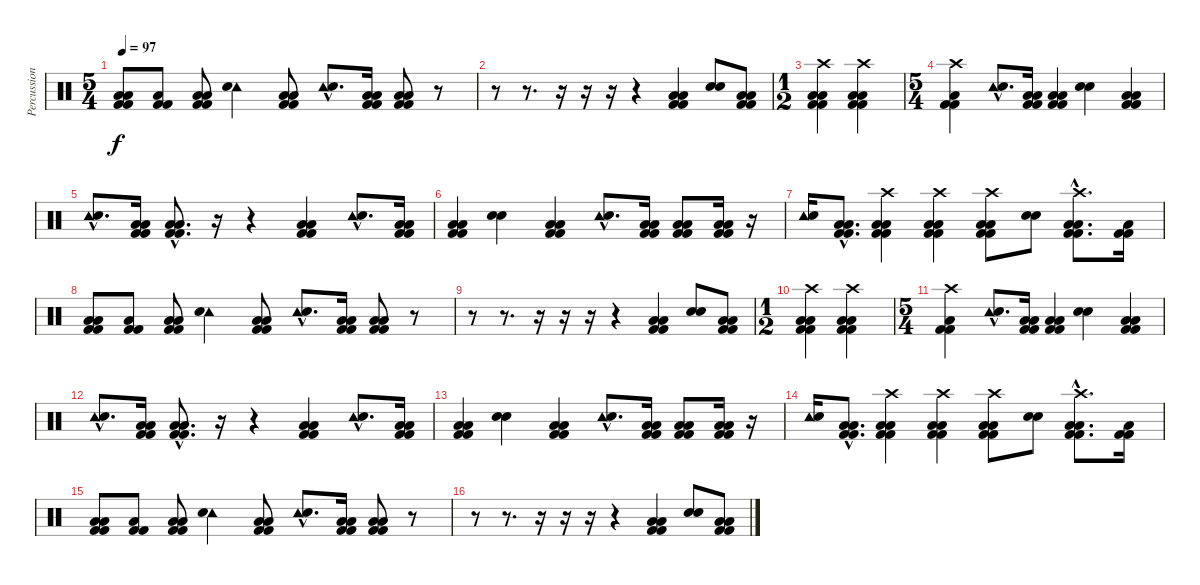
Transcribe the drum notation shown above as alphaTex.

\track ("Percussions" "Percussion") {instrument percussion}
\staff {score}
\articulation defaults
\ts (5 4)
\tempo 97
\clef neutral
\ks c
("Kick (hit) 2" "Kick (hit) 2" "Low Floor Tom (hit)" "Low Floor Tom (hit)").8{dy f} ("Kick (hit) 2" "Kick (hit) 2" "Low Floor Tom (hit)").8 ("Kick (hit) 2" "Kick (hit) 2" "Low Floor Tom (hit)" "Low Floor Tom (hit)").8 ("Tambourine (hit)" "Electric Snare (hit)").4 ("Kick (hit) 2" "Kick (hit) 2" "Low Floor Tom (hit)" "Low Floor Tom (hit)").8 ("Tambourine (hit)"{hac} "Electric Snare (hit)"{hac}).8{d} ("Kick (hit) 2" "Kick (hit) 2" "Low Floor Tom (hit)" "Low Floor Tom (hit)").16 ("Kick (hit) 2" "Kick (hit) 2" "Low Floor Tom (hit)" "Low Floor Tom (hit)").8 r.8 |
r.8 r.8{d} r.16 r.16 r.16 r.4 ("Kick (hit) 2" "Kick (hit) 2" "Low Floor Tom (hit)" "Low Floor Tom (hit)").4 ("Electric Snare (hit)" "Electric Snare (hit)").8 ("Kick (hit) 2" "Kick (hit) 2" "Low Floor Tom (hit)" "Low Floor Tom (hit)").8 |
\ts (1 2)
("Kick (hit) 2" "Kick (hit) 2" "Low Floor Tom (hit)" "Low Floor Tom (hit)" "Crash high (hit)").4 ("Kick (hit) 2" "Kick (hit) 2" "Low Floor Tom (hit)" "Low Floor Tom (hit)" "Crash high (hit)").4 |
\ts (5 4)
("Kick (hit) 2" "Kick (hit) 2" "Low Floor Tom (hit)" "Crash high (hit)").4 ("Tambourine (hit)"{hac} "Electric Snare (hit)"{hac}).8{d} ("Kick (hit) 2" "Kick (hit) 2" "Low Floor Tom (hit)" "Low Floor Tom (hit)").16 ("Kick (hit) 2" "Kick (hit) 2" "Low Floor Tom (hit)" "Low Floor Tom (hit)").4 ("Electric Snare (hit)" "Electric Snare (hit)").4 ("Kick (hit) 2" "Kick (hit) 2" "Low Floor Tom (hit)" "Low Floor Tom (hit)").4 |
("Tambourine (hit)"{hac} "Electric Snare (hit)"{hac}).8{d} ("Kick (hit) 2" "Kick (hit) 2" "Low Floor Tom (hit)" "Low Floor Tom (hit)").16 ("Kick (hit) 2"{hac} "Kick (hit) 2"{hac} "Low Floor Tom (hit)"{hac} "Low Floor Tom (hit)"{hac}).8{d} r.16 r.4 ("Kick (hit) 2" "Kick (hit) 2" "Low Floor Tom (hit)" "Low Floor Tom (hit)").4 ("Tambourine (hit)"{hac} "Electric Snare (hit)"{hac}).8{d} ("Kick (hit) 2" "Kick (hit) 2" "Low Floor Tom (hit)" "Low Floor Tom (hit)").16 |
("Kick (hit) 2" "Kick (hit) 2" "Low Floor Tom (hit)" "Low Floor Tom (hit)").4 ("Electric Snare (hit)" "Electric Snare (hit)").4 ("Kick (hit) 2" "Kick (hit) 2" "Low Floor Tom (hit)" "Low Floor Tom (hit)").4 ("Tambourine (hit)"{hac} "Electric Snare (hit)"{hac}).8{d} ("Kick (hit) 2" "Kick (hit) 2" "Low Floor Tom (hit)" "Low Floor Tom (hit)").16 ("Kick (hit) 2" "Kick (hit) 2" "Low Floor Tom (hit)" "Low Floor Tom (hit)").8 ("Kick (hit) 2" "Kick (hit) 2" "Low Floor Tom (hit)" "Low Floor Tom (hit)").16 r.16 |
("Tambourine (hit)" "Electric Snare (hit)").16 ("Kick (hit) 2"{hac} "Kick (hit) 2"{hac} "Low Floor Tom (hit)"{hac} "Low Floor Tom (hit)"{hac}).8{d} ("Kick (hit) 2" "Kick (hit) 2" "Low Floor Tom (hit)" "Low Floor Tom (hit)" "Crash high (hit)").4 ("Kick (hit) 2" "Kick (hit) 2" "Low Floor Tom (hit)" "Low Floor Tom (hit)" "Crash high (hit)").4 ("Kick (hit) 2" "Kick (hit) 2" "Low Floor Tom (hit)" "Low Floor Tom (hit)" "Crash high (hit)").8 ("Electric Snare (hit)" "Electric Snare (hit)").8 ("Kick (hit) 2"{hac} "Kick (hit) 2"{hac} "Low Floor Tom (hit)"{hac} "Low Floor Tom (hit)"{hac} "Crash high (hit)"{hac}).8{d} ("Kick (hit) 2" "Kick (hit) 2" "Low Floor Tom (hit)").16 |
("Kick (hit) 2" "Kick (hit) 2" "Low Floor Tom (hit)" "Low Floor Tom (hit)").8 ("Kick (hit) 2" "Kick (hit) 2" "Low Floor Tom (hit)").8 ("Kick (hit) 2" "Kick (hit) 2" "Low Floor Tom (hit)" "Low Floor Tom (hit)").8 ("Tambourine (hit)" "Electric Snare (hit)").4 ("Kick (hit) 2" "Kick (hit) 2" "Low Floor Tom (hit)" "Low Floor Tom (hit)").8 ("Tambourine (hit)"{hac} "Electric Snare (hit)"{hac}).8{d} ("Kick (hit) 2" "Kick (hit) 2" "Low Floor Tom (hit)" "Low Floor Tom (hit)").16 ("Kick (hit) 2" "Kick (hit) 2" "Low Floor Tom (hit)" "Low Floor Tom (hit)").8 r.8 |
r.8 r.8{d} r.16 r.16 r.16 r.4 ("Kick (hit) 2" "Kick (hit) 2" "Low Floor Tom (hit)" "Low Floor Tom (hit)").4 ("Electric Snare (hit)" "Electric Snare (hit)").8 ("Kick (hit) 2" "Kick (hit) 2" "Low Floor Tom (hit)" "Low Floor Tom (hit)").8 |
\ts (1 2)
("Kick (hit) 2" "Kick (hit) 2" "Low Floor Tom (hit)" "Low Floor Tom (hit)" "Crash high (hit)").4 ("Kick (hit) 2" "Kick (hit) 2" "Low Floor Tom (hit)" "Low Floor Tom (hit)" "Crash high (hit)").4 |
\ts (5 4)
("Kick (hit) 2" "Kick (hit) 2" "Low Floor Tom (hit)" "Crash high (hit)").4 ("Tambourine (hit)"{hac} "Electric Snare (hit)"{hac}).8{d} ("Kick (hit) 2" "Kick (hit) 2" "Low Floor Tom (hit)" "Low Floor Tom (hit)").16 ("Kick (hit) 2" "Kick (hit) 2" "Low Floor Tom (hit)" "Low Floor Tom (hit)").4 ("Electric Snare (hit)" "Electric Snare (hit)").4 ("Kick (hit) 2" "Kick (hit) 2" "Low Floor Tom (hit)" "Low Floor Tom (hit)").4 |
("Tambourine (hit)"{hac} "Electric Snare (hit)"{hac}).8{d} ("Kick (hit) 2" "Kick (hit) 2" "Low Floor Tom (hit)" "Low Floor Tom (hit)").16 ("Kick (hit) 2"{hac} "Kick (hit) 2"{hac} "Low Floor Tom (hit)"{hac} "Low Floor Tom (hit)"{hac}).8{d} r.16 r.4 ("Kick (hit) 2" "Kick (hit) 2" "Low Floor Tom (hit)" "Low Floor Tom (hit)").4 ("Tambourine (hit)"{hac} "Electric Snare (hit)"{hac}).8{d} ("Kick (hit) 2" "Kick (hit) 2" "Low Floor Tom (hit)" "Low Floor Tom (hit)").16 |
("Kick (hit) 2" "Kick (hit) 2" "Low Floor Tom (hit)" "Low Floor Tom (hit)").4 ("Electric Snare (hit)" "Electric Snare (hit)").4 ("Kick (hit) 2" "Kick (hit) 2" "Low Floor Tom (hit)" "Low Floor Tom (hit)").4 ("Tambourine (hit)"{hac} "Electric Snare (hit)"{hac}).8{d} ("Kick (hit) 2" "Kick (hit) 2" "Low Floor Tom (hit)" "Low Floor Tom (hit)").16 ("Kick (hit) 2" "Kick (hit) 2" "Low Floor Tom (hit)" "Low Floor Tom (hit)").8 ("Kick (hit) 2" "Kick (hit) 2" "Low Floor Tom (hit)" "Low Floor Tom (hit)").16 r.16 |
("Tambourine (hit)" "Electric Snare (hit)").16 ("Kick (hit) 2"{hac} "Kick (hit) 2"{hac} "Low Floor Tom (hit)"{hac} "Low Floor Tom (hit)"{hac}).8{d} ("Kick (hit) 2" "Kick (hit) 2" "Low Floor Tom (hit)" "Low Floor Tom (hit)" "Crash high (hit)").4 ("Kick (hit) 2" "Kick (hit) 2" "Low Floor Tom (hit)" "Low Floor Tom (hit)" "Crash high (hit)").4 ("Kick (hit) 2" "Kick (hit) 2" "Low Floor Tom (hit)" "Low Floor Tom (hit)" "Crash high (hit)").8 ("Electric Snare (hit)" "Electric Snare (hit)").8 ("Kick (hit) 2"{hac} "Kick (hit) 2"{hac} "Low Floor Tom (hit)"{hac} "Low Floor Tom (hit)"{hac} "Crash high (hit)"{hac}).8{d} ("Kick (hit) 2" "Kick (hit) 2" "Low Floor Tom (hit)").16 |
("Kick (hit) 2" "Kick (hit) 2" "Low Floor Tom (hit)" "Low Floor Tom (hit)").8 ("Kick (hit) 2" "Kick (hit) 2" "Low Floor Tom (hit)").8 ("Kick (hit) 2" "Kick (hit) 2" "Low Floor Tom (hit)" "Low Floor Tom (hit)").8 ("Tambourine (hit)" "Electric Snare (hit)").4 ("Kick (hit) 2" "Kick (hit) 2" "Low Floor Tom (hit)" "Low Floor Tom (hit)").8 ("Tambourine (hit)"{hac} "Electric Snare (hit)"{hac}).8{d} ("Kick (hit) 2" "Kick (hit) 2" "Low Floor Tom (hit)" "Low Floor Tom (hit)").16 ("Kick (hit) 2" "Kick (hit) 2" "Low Floor Tom (hit)" "Low Floor Tom (hit)").8 r.8 |
r.8 r.8{d} r.16 r.16 r.16 r.4 ("Kick (hit) 2" "Kick (hit) 2" "Low Floor Tom (hit)" "Low Floor Tom (hit)").4 ("Electric Snare (hit)" "Electric Snare (hit)").8 ("Kick (hit) 2" "Kick (hit) 2" "Low Floor Tom (hit)" "Low Floor Tom (hit)").8
